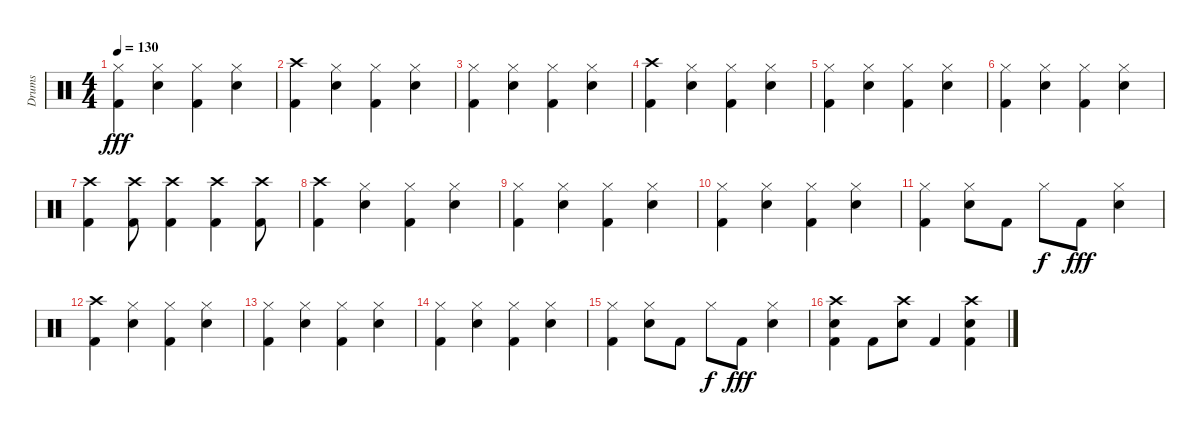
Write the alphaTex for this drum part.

\track ("Drums" "Drums") {instrument percussion}
\staff {score}
\articulation defaults
\ts (4 4)
\tempo 130
\clef neutral
\ks c
("Kick (hit) 2" "Hi-Hat (closed)").4{dy fff} ("Hi-Hat (closed)" "Snare (hit) 2").4 ("Kick (hit) 2" "Hi-Hat (closed)").4 ("Hi-Hat (closed)" "Snare (hit) 2").4 |
("Crash high (hit)" "Kick (hit) 2").4 ("Hi-Hat (closed)" "Snare (hit) 2").4 ("Kick (hit) 2" "Hi-Hat (closed)").4 ("Hi-Hat (closed)" "Snare (hit) 2").4 |
("Kick (hit) 2" "Hi-Hat (closed)").4 ("Hi-Hat (closed)" "Snare (hit) 2").4 ("Kick (hit) 2" "Hi-Hat (closed)").4 ("Hi-Hat (closed)" "Snare (hit) 2").4 |
("Crash high (hit)" "Kick (hit) 2").4 ("Hi-Hat (closed)" "Snare (hit) 2").4 ("Kick (hit) 2" "Hi-Hat (closed)").4 ("Hi-Hat (closed)" "Snare (hit) 2").4 |
("Kick (hit) 2" "Hi-Hat (closed)").4 ("Hi-Hat (closed)" "Snare (hit) 2").4 ("Kick (hit) 2" "Hi-Hat (closed)").4 ("Hi-Hat (closed)" "Snare (hit) 2").4 |
("Kick (hit) 2" "Hi-Hat (closed)").4 ("Hi-Hat (closed)" "Snare (hit) 2").4 ("Kick (hit) 2" "Hi-Hat (closed)").4 ("Hi-Hat (closed)" "Snare (hit) 2").4 |
("Crash high (hit)" "Kick (hit) 2").4 ("Crash high (hit)" "Kick (hit) 2").8 ("Crash high (hit)" "Kick (hit) 2").4 ("Crash high (hit)" "Kick (hit) 2").4 ("Crash high (hit)" "Kick (hit) 2").8 |
("Crash high (hit)" "Kick (hit) 2").4 ("Hi-Hat (closed)" "Snare (hit) 2").4 ("Kick (hit) 2" "Hi-Hat (closed)").4 ("Hi-Hat (closed)" "Snare (hit) 2").4 |
("Kick (hit) 2" "Hi-Hat (closed)").4 ("Hi-Hat (closed)" "Snare (hit) 2").4 ("Kick (hit) 2" "Hi-Hat (closed)").4 ("Hi-Hat (closed)" "Snare (hit) 2").4 |
("Kick (hit) 2" "Hi-Hat (closed)").4 ("Hi-Hat (closed)" "Snare (hit) 2").4 ("Kick (hit) 2" "Hi-Hat (closed)").4 ("Hi-Hat (closed)" "Snare (hit) 2").4 |
("Kick (hit) 2" "Hi-Hat (closed)").4 ("Hi-Hat (closed)" "Snare (hit) 2").8 "Kick (hit) 2".8 "Hi-Hat (closed)".8{dy f} "Kick (hit) 2".8{dy fff} ("Hi-Hat (closed)" "Snare (hit) 2").4 |
("Crash high (hit)" "Kick (hit) 2").4 ("Hi-Hat (closed)" "Snare (hit) 2").4 ("Kick (hit) 2" "Hi-Hat (closed)").4 ("Hi-Hat (closed)" "Snare (hit) 2").4 |
("Kick (hit) 2" "Hi-Hat (closed)").4 ("Hi-Hat (closed)" "Snare (hit) 2").4 ("Kick (hit) 2" "Hi-Hat (closed)").4 ("Hi-Hat (closed)" "Snare (hit) 2").4 |
("Kick (hit) 2" "Hi-Hat (closed)").4 ("Hi-Hat (closed)" "Snare (hit) 2").4 ("Kick (hit) 2" "Hi-Hat (closed)").4 ("Hi-Hat (closed)" "Snare (hit) 2").4 |
("Kick (hit) 2" "Hi-Hat (closed)").4 ("Hi-Hat (closed)" "Snare (hit) 2").8 "Kick (hit) 2".8 "Hi-Hat (closed)".8{dy f} "Kick (hit) 2".8{dy fff} ("Hi-Hat (closed)" "Snare (hit) 2").4 |
("Crash high (hit)" "Kick (hit) 2" "Snare (hit) 2").4 "Kick (hit) 2".8 ("Crash high (hit)" "Snare (hit) 2").8 "Kick (hit) 2".4 ("Crash high (hit)" "Kick (hit) 2" "Snare (hit) 2").4
